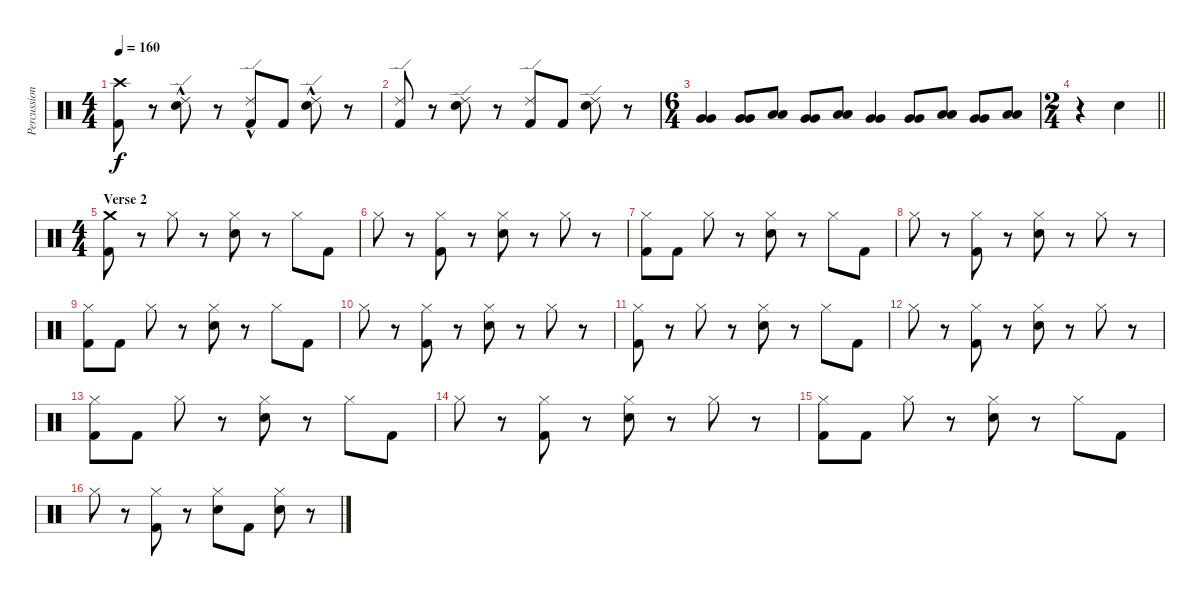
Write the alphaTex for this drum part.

\track ("Percussion" "Percussion") {instrument percussion}
\staff {score}
\articulation defaults
\ts (4 4)
\tempo 160
\clef neutral
\ks c
("Crash high (hit)" "Kick (hit) 2").8{dy f} r.8 ("Ride (edge) 2"{hac} "Electric Snare (hit)").8 r.8 ("Ride (edge) 2"{hac} "Kick (hit) 2").8 "Kick (hit) 2".8 ("Ride (edge) 2"{hac} "Electric Snare (hit)").8 r.8 |
("Ride (edge) 2" "Kick (hit) 2").8 r.8 ("Ride (edge) 2" "Electric Snare (hit)").8 r.8 ("Ride (edge) 2" "Kick (hit) 2").8 "Kick (hit) 2".8 ("Ride (edge) 2" "Electric Snare (hit)").8 r.8 |
\ts (6 4)
("Very Low Tom (hit)" "Very Low Tom (hit)").4 ("Very Low Tom (hit)" "Very Low Tom (hit)").8 ("Low Floor Tom (hit)" "Low Floor Tom (hit)").8 ("Very Low Tom (hit)" "Very Low Tom (hit)").8 ("Low Floor Tom (hit)" "Low Floor Tom (hit)").8 ("Very Low Tom (hit)" "Very Low Tom (hit)").4 ("Very Low Tom (hit)" "Very Low Tom (hit)").8 ("Low Floor Tom (hit)" "Low Floor Tom (hit)").8 ("Very Low Tom (hit)" "Very Low Tom (hit)").8 ("Low Tom (hit)" "Low Tom (hit)").8 |
\ts (2 4)
\barLineRight lightlight
r.4 "Electric Snare (hit)".4 |
\ts (4 4)
\section ("" "Verse 2")
("Crash medium (hit)" "Kick (hit) 2").8 r.8 "Hi-Hat (closed)".8 r.8 ("Hi-Hat (closed)" "Electric Snare (hit)").8 r.8 "Hi-Hat (closed)".8 "Kick (hit) 2".8 |
"Hi-Hat (closed)".8 r.8 ("Hi-Hat (closed)" "Kick (hit) 2").8 r.8 ("Hi-Hat (closed)" "Electric Snare (hit)").8 r.8 "Hi-Hat (closed)".8 r.8 |
("Hi-Hat (closed)" "Kick (hit) 2").8 "Kick (hit) 2".8 "Hi-Hat (closed)".8 r.8 ("Hi-Hat (closed)" "Electric Snare (hit)").8 r.8 "Hi-Hat (closed)".8 "Kick (hit) 2".8 |
"Hi-Hat (closed)".8 r.8 ("Hi-Hat (closed)" "Kick (hit) 2").8 r.8 ("Hi-Hat (closed)" "Electric Snare (hit)").8 r.8 "Hi-Hat (closed)".8 r.8 |
("Hi-Hat (closed)" "Kick (hit) 2").8 "Kick (hit) 2".8 "Hi-Hat (closed)".8 r.8 ("Hi-Hat (closed)" "Electric Snare (hit)").8 r.8 "Hi-Hat (closed)".8 "Kick (hit) 2".8 |
"Hi-Hat (closed)".8 r.8 ("Hi-Hat (closed)" "Kick (hit) 2").8 r.8 ("Hi-Hat (closed)" "Electric Snare (hit)").8 r.8 "Hi-Hat (closed)".8 r.8 |
("Hi-Hat (closed)" "Kick (hit) 2").8 r.8 "Hi-Hat (closed)".8 r.8 ("Hi-Hat (closed)" "Electric Snare (hit)").8 r.8 "Hi-Hat (closed)".8 "Kick (hit) 2".8 |
"Hi-Hat (closed)".8 r.8 ("Hi-Hat (closed)" "Kick (hit) 2").8 r.8 ("Hi-Hat (closed)" "Electric Snare (hit)").8 r.8 "Hi-Hat (closed)".8 r.8 |
("Hi-Hat (closed)" "Kick (hit) 2").8 "Kick (hit) 2".8 "Hi-Hat (closed)".8 r.8 ("Hi-Hat (closed)" "Electric Snare (hit)").8 r.8 "Hi-Hat (closed)".8 "Kick (hit) 2".8 |
"Hi-Hat (closed)".8 r.8 ("Hi-Hat (closed)" "Kick (hit) 2").8 r.8 ("Hi-Hat (closed)" "Electric Snare (hit)").8 r.8 "Hi-Hat (closed)".8 r.8 |
("Hi-Hat (closed)" "Kick (hit) 2").8 "Kick (hit) 2".8 "Hi-Hat (closed)".8 r.8 ("Hi-Hat (closed)" "Electric Snare (hit)").8 r.8 "Hi-Hat (closed)".8 "Kick (hit) 2".8 |
"Hi-Hat (closed)".8 r.8 ("Hi-Hat (closed)" "Kick (hit) 2").8 r.8 ("Hi-Hat (closed)" "Electric Snare (hit)").8 "Kick (hit) 2".8 ("Hi-Hat (closed)" "Electric Snare (hit)").8 r.8
